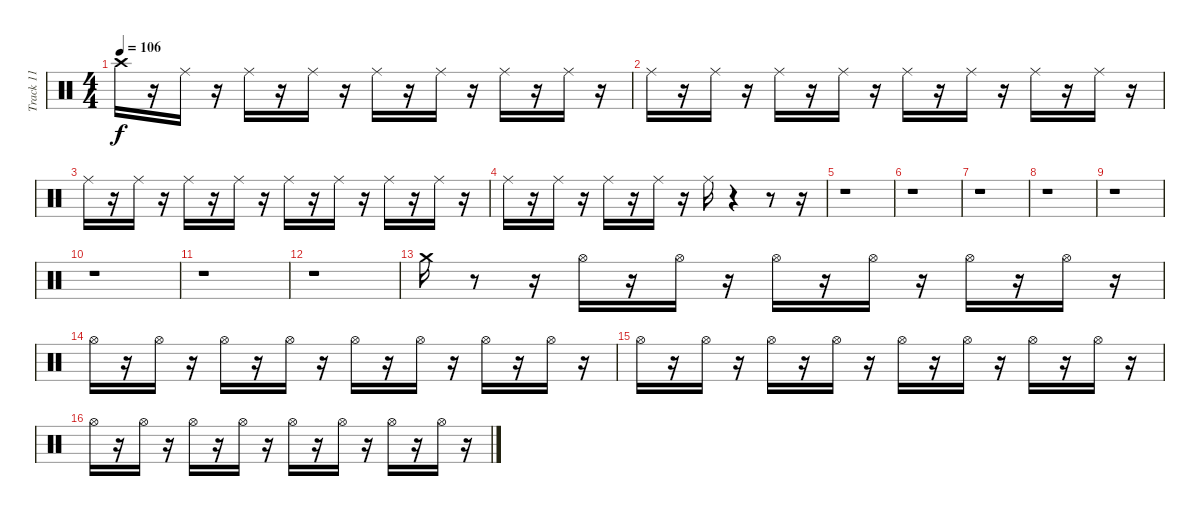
\track ("Track 11" "Track 11") {instrument percussion}
\staff {score}
\articulation defaults
\ts (4 4)
\tempo 106
\clef neutral
\ks c "Crash high (hit)".16{dy f}
r.16 "Ride (middle)".16 r.16 "Ride (middle)".16 r.16 "Ride (middle)".16 r.16 "Ride (middle)".16 r.16 "Ride (middle)".16 r.16 "Ride (middle)".16 r.16 "Ride (middle)".16 r.16 |
"Ride (middle)".16 r.16 "Ride (middle)".16 r.16 "Ride (middle)".16 r.16 "Ride (middle)".16 r.16 "Ride (middle)".16 r.16 "Ride (middle)".16 r.16 "Ride (middle)".16 r.16 "Ride (middle)".16 r.16 |
"Ride (middle)".16 r.16 "Ride (middle)".16 r.16 "Ride (middle)".16 r.16 "Ride (middle)".16 r.16 "Ride (middle)".16 r.16 "Ride (middle)".16 r.16 "Ride (middle)".16 r.16 "Ride (middle)".16 r.16 |
"Ride (middle)".16 r.16 "Ride (middle)".16 r.16 "Ride (middle)".16 r.16 "Ride (middle)".16 r.16 "Ride (middle)".16 r.4 r.8 r.16 |
r.1 |
r.1 |
r.1 |
r.1 |
r.1 |
r.1 |
r.1 |
r.1 |
"Crash medium (hit)".16 r.8 r.16 "Hi-Hat (open)".16 r.16 "Hi-Hat (open)".16 r.16 "Hi-Hat (open)".16 r.16 "Hi-Hat (open)".16 r.16 "Hi-Hat (open)".16 r.16 "Hi-Hat (open)".16 r.16 |
"Hi-Hat (open)".16 r.16 "Hi-Hat (open)".16 r.16 "Hi-Hat (open)".16 r.16 "Hi-Hat (open)".16 r.16 "Hi-Hat (open)".16 r.16 "Hi-Hat (open)".16 r.16 "Hi-Hat (open)".16 r.16 "Hi-Hat (open)".16 r.16 |
"Hi-Hat (open)".16 r.16 "Hi-Hat (open)".16 r.16 "Hi-Hat (open)".16 r.16 "Hi-Hat (open)".16 r.16 "Hi-Hat (open)".16 r.16 "Hi-Hat (open)".16 r.16 "Hi-Hat (open)".16 r.16 "Hi-Hat (open)".16 r.16 |
"Hi-Hat (open)".16 r.16 "Hi-Hat (open)".16 r.16 "Hi-Hat (open)".16 r.16 "Hi-Hat (open)".16 r.16 "Hi-Hat (open)".16 r.16 "Hi-Hat (open)".16 r.16 "Hi-Hat (open)".16 r.16 "Hi-Hat (open)".16 r.16
